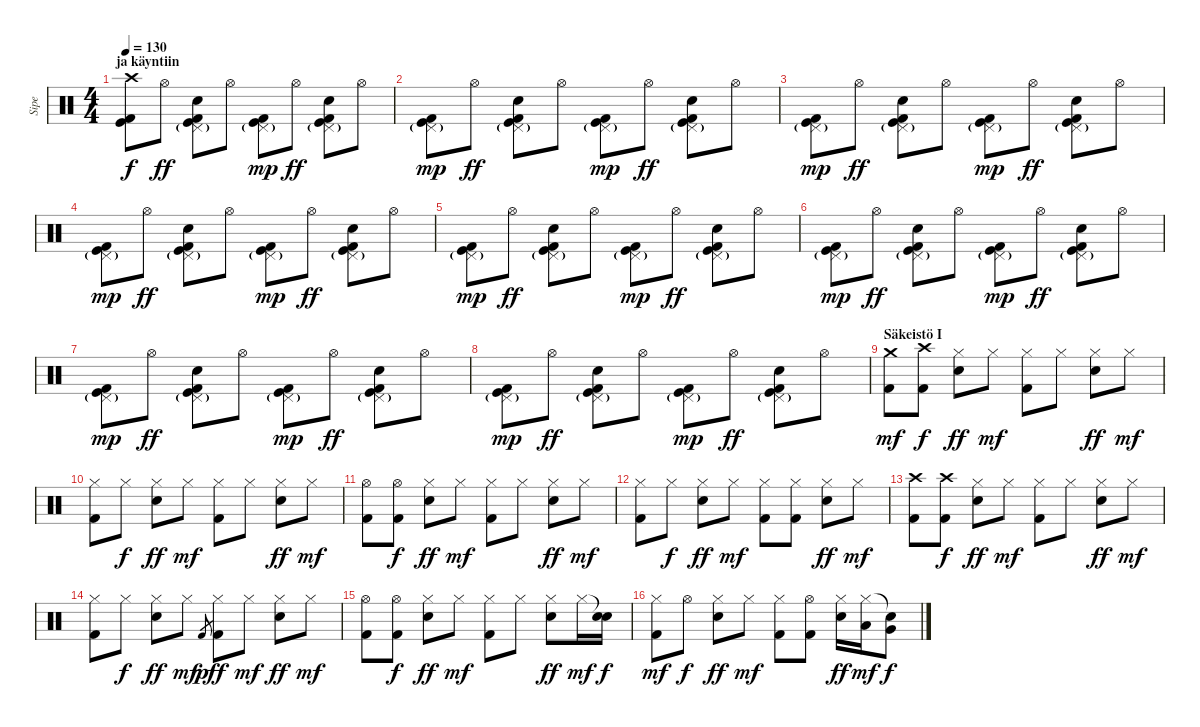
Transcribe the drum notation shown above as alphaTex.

\track ("Sipe" "Sipe") {instrument percussion}
\staff {score}
\articulation defaults
\ts (4 4)
\section ("" "ja käyntiin")
\tempo 130
\clef neutral
\ks c
("Crash high (hit)" "Kick (hit)" "Kick (hit) 2").8{dy f} "Hi-Hat (open)".8{dy ff} ("Pedal Hi-Hat (hit)"{g} "Electric Snare (hit)" "Kick (hit)" "Kick (hit) 2").8 "Hi-Hat (open)".8 ("Pedal Hi-Hat (hit)"{g} "Kick (hit)" "Kick (hit) 2").8{dy mp} "Hi-Hat (open)".8{dy ff} ("Pedal Hi-Hat (hit)"{g} "Electric Snare (hit)" "Kick (hit)" "Kick (hit) 2").8 "Hi-Hat (open)".8 |
("Pedal Hi-Hat (hit)"{g} "Kick (hit)" "Kick (hit) 2").8{dy mp} "Hi-Hat (open)".8{dy ff} ("Pedal Hi-Hat (hit)"{g} "Electric Snare (hit)" "Kick (hit)" "Kick (hit) 2").8 "Hi-Hat (open)".8 ("Pedal Hi-Hat (hit)"{g} "Kick (hit)" "Kick (hit) 2").8{dy mp} "Hi-Hat (open)".8{dy ff} ("Pedal Hi-Hat (hit)"{g} "Electric Snare (hit)" "Kick (hit)" "Kick (hit) 2").8 "Hi-Hat (open)".8 |
("Pedal Hi-Hat (hit)"{g} "Kick (hit)" "Kick (hit) 2").8{dy mp} "Hi-Hat (open)".8{dy ff} ("Pedal Hi-Hat (hit)"{g} "Electric Snare (hit)" "Kick (hit)" "Kick (hit) 2").8 "Hi-Hat (open)".8 ("Pedal Hi-Hat (hit)"{g} "Kick (hit)" "Kick (hit) 2").8{dy mp} "Hi-Hat (open)".8{dy ff} ("Pedal Hi-Hat (hit)"{g} "Electric Snare (hit)" "Kick (hit)" "Kick (hit) 2").8 "Hi-Hat (open)".8 |
("Pedal Hi-Hat (hit)"{g} "Kick (hit)" "Kick (hit) 2").8{dy mp} "Hi-Hat (open)".8{dy ff} ("Pedal Hi-Hat (hit)"{g} "Electric Snare (hit)" "Kick (hit)" "Kick (hit) 2").8 "Hi-Hat (open)".8 ("Pedal Hi-Hat (hit)"{g} "Kick (hit)" "Kick (hit) 2").8{dy mp} "Hi-Hat (open)".8{dy ff} ("Pedal Hi-Hat (hit)"{g} "Electric Snare (hit)" "Kick (hit)" "Kick (hit) 2").8 "Hi-Hat (open)".8 |
("Pedal Hi-Hat (hit)"{g} "Kick (hit)" "Kick (hit) 2").8{dy mp} "Hi-Hat (open)".8{dy ff} ("Pedal Hi-Hat (hit)"{g} "Electric Snare (hit)" "Kick (hit)" "Kick (hit) 2").8 "Hi-Hat (open)".8 ("Pedal Hi-Hat (hit)"{g} "Kick (hit)" "Kick (hit) 2").8{dy mp} "Hi-Hat (open)".8{dy ff} ("Pedal Hi-Hat (hit)"{g} "Electric Snare (hit)" "Kick (hit)" "Kick (hit) 2").8 "Hi-Hat (open)".8 |
("Pedal Hi-Hat (hit)"{g} "Kick (hit)" "Kick (hit) 2").8{dy mp} "Hi-Hat (open)".8{dy ff} ("Pedal Hi-Hat (hit)"{g} "Electric Snare (hit)" "Kick (hit)" "Kick (hit) 2").8 "Hi-Hat (open)".8 ("Pedal Hi-Hat (hit)"{g} "Kick (hit)" "Kick (hit) 2").8{dy mp} "Hi-Hat (open)".8{dy ff} ("Pedal Hi-Hat (hit)"{g} "Electric Snare (hit)" "Kick (hit)" "Kick (hit) 2").8 "Hi-Hat (open)".8 |
("Pedal Hi-Hat (hit)"{g} "Kick (hit)" "Kick (hit) 2").8{dy mp} "Hi-Hat (open)".8{dy ff} ("Pedal Hi-Hat (hit)"{g} "Electric Snare (hit)" "Kick (hit)" "Kick (hit) 2").8 "Hi-Hat (open)".8 ("Pedal Hi-Hat (hit)"{g} "Kick (hit)" "Kick (hit) 2").8{dy mp} "Hi-Hat (open)".8{dy ff} ("Pedal Hi-Hat (hit)"{g} "Electric Snare (hit)" "Kick (hit)" "Kick (hit) 2").8 "Hi-Hat (open)".8 |
("Pedal Hi-Hat (hit)"{g} "Kick (hit)" "Kick (hit) 2").8{dy mp} "Hi-Hat (open)".8{dy ff} ("Pedal Hi-Hat (hit)"{g} "Electric Snare (hit)" "Kick (hit)" "Kick (hit) 2").8 "Hi-Hat (open)".8 ("Pedal Hi-Hat (hit)"{g} "Kick (hit)" "Kick (hit) 2").8{dy mp} "Hi-Hat (open)".8{dy ff} ("Pedal Hi-Hat (hit)"{g} "Electric Snare (hit)" "Kick (hit)" "Kick (hit) 2").8 "Hi-Hat (open)".8 |
\section ("" "Säkeistö I")
("Crash medium (hit)" "Kick (hit) 2").8{dy mf} ("Crash high (hit)" "Kick (hit) 2").8{dy f} ("Hi-Hat (closed)" "Electric Snare (hit)").8{dy ff} "Hi-Hat (closed)".8{dy mf} ("Hi-Hat (closed)" "Kick (hit) 2").8 "Hi-Hat (closed)".8 ("Hi-Hat (closed)" "Electric Snare (hit)").8{dy ff} "Hi-Hat (closed)".8{dy mf} |
("Hi-Hat (closed)" "Kick (hit) 2").8 "Hi-Hat (closed)".8{dy f} ("Hi-Hat (closed)" "Electric Snare (hit)").8{dy ff} "Hi-Hat (closed)".8{dy mf} ("Hi-Hat (closed)" "Kick (hit) 2").8 "Hi-Hat (closed)".8 ("Hi-Hat (closed)" "Electric Snare (hit)").8{dy ff} "Hi-Hat (closed)".8{dy mf} |
("Hi-Hat (open)" "Kick (hit) 2").8 ("Hi-Hat (open)" "Kick (hit) 2").8{dy f} ("Hi-Hat (closed)" "Electric Snare (hit)").8{dy ff} "Hi-Hat (closed)".8{dy mf} ("Hi-Hat (closed)" "Kick (hit) 2").8 "Hi-Hat (closed)".8 ("Hi-Hat (closed)" "Electric Snare (hit)").8{dy ff} "Hi-Hat (closed)".8{dy mf} |
("Hi-Hat (closed)" "Kick (hit) 2").8 "Hi-Hat (closed)".8{dy f} ("Hi-Hat (closed)" "Electric Snare (hit)").8{dy ff} "Hi-Hat (closed)".8{dy mf} ("Hi-Hat (closed)" "Kick (hit) 2").8 ("Hi-Hat (closed)" "Kick (hit) 2").8 ("Hi-Hat (closed)" "Electric Snare (hit)").8{dy ff} "Hi-Hat (closed)".8{dy mf} |
("Crash high (hit)" "Kick (hit) 2").8 ("Crash high (hit)" "Kick (hit) 2").8{dy f} ("Hi-Hat (closed)" "Electric Snare (hit)").8{dy ff} "Hi-Hat (closed)".8{dy mf} ("Hi-Hat (closed)" "Kick (hit) 2").8 "Hi-Hat (closed)".8 ("Hi-Hat (closed)" "Electric Snare (hit)").8{dy ff} "Hi-Hat (closed)".8{dy mf} |
("Hi-Hat (closed)" "Kick (hit) 2").8 "Hi-Hat (closed)".8{dy f} ("Hi-Hat (closed)" "Electric Snare (hit)").8{dy ff} "Hi-Hat (closed)".8{dy mf} "Kick (hit) 2".8{gr dy p} ("Hi-Hat (closed)" "Kick (hit) 2").8{dy ff} "Hi-Hat (closed)".8{dy mf} ("Hi-Hat (closed)" "Electric Snare (hit)").8{dy ff} "Hi-Hat (closed)".8{dy mf} |
("Hi-Hat (open)" "Kick (hit) 2").8 ("Hi-Hat (open)" "Kick (hit) 2").8{dy f} ("Hi-Hat (closed)" "Electric Snare (hit)").8{dy ff} "Hi-Hat (closed)".8{dy mf} ("Hi-Hat (closed)" "Kick (hit) 2").8 "Hi-Hat (closed)".8 ("Hi-Hat (closed)" "Electric Snare (hit)").8{dy ff} "Hi-Hat (closed)".16{dy mf} ("Snare (hit)"{t} "Electric Snare (hit)").16{dy f} |
("Hi-Hat (closed)" "Kick (hit) 2").8{dy mf} "Hi-Hat (open)".8{dy f} ("Hi-Hat (closed)" "Electric Snare (hit)").8{dy ff} "Hi-Hat (closed)".8{dy mf} ("Hi-Hat (closed)" "Kick (hit) 2").8 ("Hi-Hat (open)" "Kick (hit) 2").8 ("Hi-Hat (closed)" "Electric Snare (hit)").16{dy ff} ("Hi-Hat (closed)" "Low Tom (hit)").16{dy mf} ("Snare (hit)"{t} "Very Low Tom (hit)").8{dy f}
